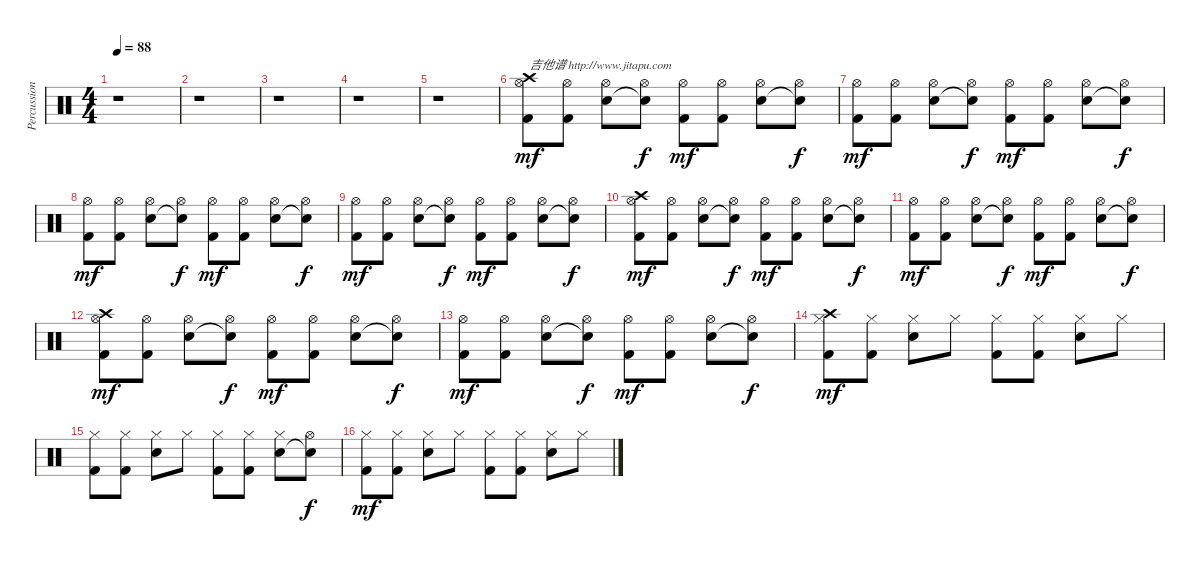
\track ("Percussions" "Percussion") {instrument percussion}
\staff {score}
\articulation defaults
\ts (4 4)
\tempo 88
\clef neutral
\ks c
r.1{dy mf} |
r.1 |
r.1 |
r.1 |
r.1 |
("Kick (hit) 2" "Hi-Hat (open)" "Crash high (hit)").8{txt "吉他谱 http://www.jitapu.com"} ("Kick (hit) 2" "Hi-Hat (open)").8 ("Snare (hit) 2" "Hi-Hat (open)").8 ("Snare (hit)"{t} "Hi-Hat (open)").8{dy f} ("Kick (hit) 2" "Hi-Hat (open)").8{dy mf} ("Kick (hit) 2" "Hi-Hat (open)").8 ("Snare (hit) 2" "Hi-Hat (open)").8 ("Snare (hit)"{t} "Hi-Hat (open)").8{dy f} |
("Kick (hit) 2" "Hi-Hat (open)").8{dy mf} ("Kick (hit) 2" "Hi-Hat (open)").8 ("Snare (hit) 2" "Hi-Hat (open)").8 ("Snare (hit)"{t} "Hi-Hat (open)").8{dy f} ("Kick (hit) 2" "Hi-Hat (open)").8{dy mf} ("Kick (hit) 2" "Hi-Hat (open)").8 ("Snare (hit) 2" "Hi-Hat (open)").8 ("Snare (hit)"{t} "Hi-Hat (open)").8{dy f} |
("Kick (hit) 2" "Hi-Hat (open)").8{dy mf} ("Kick (hit) 2" "Hi-Hat (open)").8 ("Snare (hit) 2" "Hi-Hat (open)").8 ("Snare (hit)"{t} "Hi-Hat (open)").8{dy f} ("Kick (hit) 2" "Hi-Hat (open)").8{dy mf} ("Kick (hit) 2" "Hi-Hat (open)").8 ("Snare (hit) 2" "Hi-Hat (open)").8 ("Snare (hit)"{t} "Hi-Hat (open)").8{dy f} |
("Kick (hit) 2" "Hi-Hat (open)").8{dy mf} ("Kick (hit) 2" "Hi-Hat (open)").8 ("Snare (hit) 2" "Hi-Hat (open)").8 ("Snare (hit)"{t} "Hi-Hat (open)").8{dy f} ("Kick (hit) 2" "Hi-Hat (open)").8{dy mf} ("Kick (hit) 2" "Hi-Hat (open)").8 ("Snare (hit) 2" "Hi-Hat (open)").8 ("Snare (hit)"{t} "Hi-Hat (open)").8{dy f} |
("Kick (hit) 2" "Hi-Hat (open)" "Crash high (hit)").8{dy mf} ("Kick (hit) 2" "Hi-Hat (open)").8 ("Snare (hit) 2" "Hi-Hat (open)").8 ("Snare (hit)"{t} "Hi-Hat (open)").8{dy f} ("Kick (hit) 2" "Hi-Hat (open)").8{dy mf} ("Kick (hit) 2" "Hi-Hat (open)").8 ("Snare (hit) 2" "Hi-Hat (open)").8 ("Snare (hit)"{t} "Hi-Hat (open)").8{dy f} |
("Kick (hit) 2" "Hi-Hat (open)").8{dy mf} ("Kick (hit) 2" "Hi-Hat (open)").8 ("Snare (hit) 2" "Hi-Hat (open)").8 ("Snare (hit)"{t} "Hi-Hat (open)").8{dy f} ("Kick (hit) 2" "Hi-Hat (open)").8{dy mf} ("Kick (hit) 2" "Hi-Hat (open)").8 ("Snare (hit) 2" "Hi-Hat (open)").8 ("Snare (hit)"{t} "Hi-Hat (open)").8{dy f} |
("Kick (hit) 2" "Hi-Hat (open)" "Crash high (hit)").8{dy mf} ("Kick (hit) 2" "Hi-Hat (open)").8 ("Snare (hit) 2" "Hi-Hat (open)").8 ("Snare (hit)"{t} "Hi-Hat (open)").8{dy f} ("Kick (hit) 2" "Hi-Hat (open)").8{dy mf} ("Kick (hit) 2" "Hi-Hat (open)").8 ("Snare (hit) 2" "Hi-Hat (open)").8 ("Snare (hit)"{t} "Hi-Hat (open)").8{dy f} |
("Kick (hit) 2" "Hi-Hat (open)").8{dy mf} ("Kick (hit) 2" "Hi-Hat (open)").8 ("Snare (hit) 2" "Hi-Hat (open)").8 ("Snare (hit)"{t} "Hi-Hat (open)").8{dy f} ("Kick (hit) 2" "Hi-Hat (open)").8{dy mf} ("Kick (hit) 2" "Hi-Hat (open)").8 ("Snare (hit) 2" "Hi-Hat (open)").8 ("Snare (hit)"{t} "Hi-Hat (open)").8{dy f} |
("Kick (hit) 2" "Hi-Hat (closed)" "Crash high (hit)").8{dy mf} ("Kick (hit) 2" "Hi-Hat (closed)").8 ("Snare (hit) 2" "Hi-Hat (closed)").8 "Hi-Hat (closed)".8 ("Kick (hit) 2" "Hi-Hat (closed)").8 ("Kick (hit) 2" "Hi-Hat (closed)").8 ("Snare (hit) 2" "Hi-Hat (closed)").8 "Hi-Hat (closed)".8 |
("Kick (hit) 2" "Hi-Hat (closed)").8 ("Kick (hit) 2" "Hi-Hat (closed)").8 ("Snare (hit) 2" "Hi-Hat (closed)").8 "Hi-Hat (closed)".8 ("Kick (hit) 2" "Hi-Hat (closed)").8 ("Kick (hit) 2" "Hi-Hat (closed)").8 ("Snare (hit) 2" "Hi-Hat (closed)").8 ("Snare (hit)"{t} "Hi-Hat (open)").8{dy f} |
("Kick (hit) 2" "Hi-Hat (closed)").8{dy mf} ("Kick (hit) 2" "Hi-Hat (closed)").8 ("Snare (hit) 2" "Hi-Hat (closed)").8 "Hi-Hat (closed)".8 ("Kick (hit) 2" "Hi-Hat (closed)").8 ("Kick (hit) 2" "Hi-Hat (closed)").8 ("Snare (hit) 2" "Hi-Hat (closed)").8 "Hi-Hat (closed)".8
